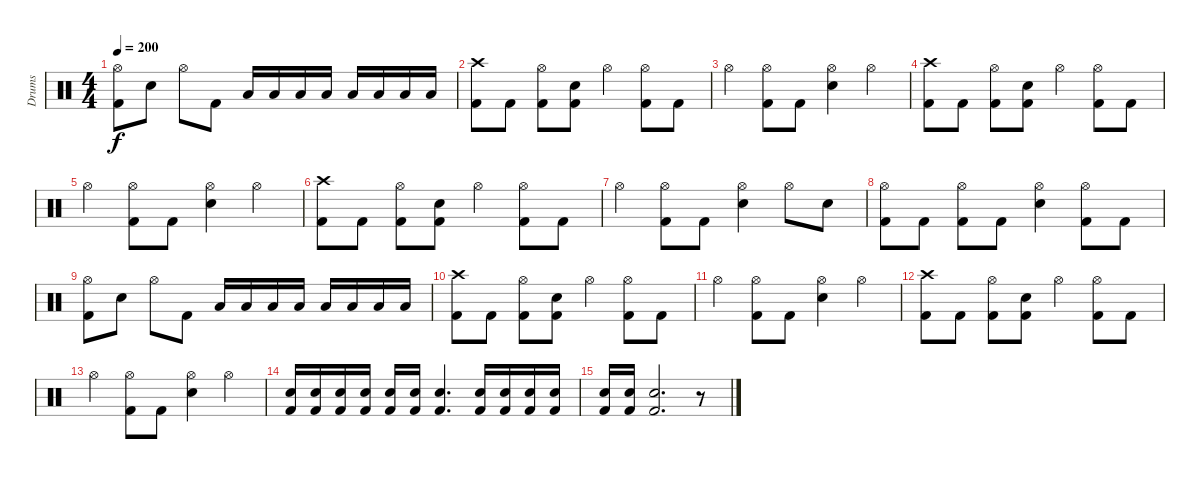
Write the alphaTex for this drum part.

\track ("Drums" "Drums") {instrument percussion}
\staff {score}
\articulation defaults
\ts (4 4)
\tempo 200
\clef neutral
\ks c
("Hi-Hat (open)" "Kick (hit) 2").8{dy f} "Snare (hit) 2".8 "Hi-Hat (open)".8 "Kick (hit) 2".8 "Low Tom (hit)".16 "Low Tom (hit)".16 "Low Tom (hit)".16 "Low Tom (hit)".16 "Low Floor Tom (hit)".16 "Low Floor Tom (hit)".16 "Low Floor Tom (hit)".16 "Low Floor Tom (hit)".16 |
("Crash high (hit)" "Kick (hit) 2").8 "Kick (hit) 2".8 ("Hi-Hat (open)" "Kick (hit) 2").8 ("Snare (hit) 2" "Kick (hit) 2").8 "Hi-Hat (open)".4 ("Hi-Hat (open)" "Kick (hit) 2").8 "Kick (hit) 2".8 |
"Hi-Hat (open)".4 ("Hi-Hat (open)" "Kick (hit) 2").8 "Kick (hit) 2".8 ("Hi-Hat (open)" "Snare (hit) 2").4 "Hi-Hat (open)".4 |
("Crash high (hit)" "Kick (hit) 2").8 "Kick (hit) 2".8 ("Hi-Hat (open)" "Kick (hit) 2").8 ("Snare (hit) 2" "Kick (hit) 2").8 "Hi-Hat (open)".4 ("Hi-Hat (open)" "Kick (hit) 2").8 "Kick (hit) 2".8 |
"Hi-Hat (open)".4 ("Hi-Hat (open)" "Kick (hit) 2").8 "Kick (hit) 2".8 ("Hi-Hat (open)" "Snare (hit) 2").4 "Hi-Hat (open)".4 |
("Crash high (hit)" "Kick (hit) 2").8 "Kick (hit) 2".8 ("Hi-Hat (open)" "Kick (hit) 2").8 ("Snare (hit) 2" "Kick (hit) 2").8 "Hi-Hat (open)".4 ("Hi-Hat (open)" "Kick (hit) 2").8 "Kick (hit) 2".8 |
"Hi-Hat (open)".4 ("Hi-Hat (open)" "Kick (hit) 2").8 "Kick (hit) 2".8 ("Hi-Hat (open)" "Snare (hit) 2").4 "Hi-Hat (open)".8 "Snare (hit) 2".8 |
("Hi-Hat (open)" "Kick (hit) 2").8 "Kick (hit) 2".8 ("Hi-Hat (open)" "Kick (hit) 2").8 "Kick (hit) 2".8 ("Hi-Hat (open)" "Snare (hit) 2").4 ("Hi-Hat (open)" "Kick (hit) 2").8 "Kick (hit) 2".8 |
("Hi-Hat (open)" "Kick (hit) 2").8 "Snare (hit) 2".8 "Hi-Hat (open)".8 "Kick (hit) 2".8 "Low Tom (hit)".16 "Low Tom (hit)".16 "Low Tom (hit)".16 "Low Tom (hit)".16 "Low Floor Tom (hit)".16 "Low Floor Tom (hit)".16 "Low Floor Tom (hit)".16 "Low Floor Tom (hit)".16 |
("Crash high (hit)" "Kick (hit) 2").8 "Kick (hit) 2".8 ("Hi-Hat (open)" "Kick (hit) 2").8 ("Snare (hit) 2" "Kick (hit) 2").8 "Hi-Hat (open)".4 ("Hi-Hat (open)" "Kick (hit) 2").8 "Kick (hit) 2".8 |
"Hi-Hat (open)".4 ("Hi-Hat (open)" "Kick (hit) 2").8 "Kick (hit) 2".8 ("Hi-Hat (open)" "Snare (hit) 2").4 "Hi-Hat (open)".4 |
("Crash high (hit)" "Kick (hit) 2").8 "Kick (hit) 2".8 ("Hi-Hat (open)" "Kick (hit) 2").8 ("Snare (hit) 2" "Kick (hit) 2").8 "Hi-Hat (open)".4 ("Hi-Hat (open)" "Kick (hit) 2").8 "Kick (hit) 2".8 |
"Hi-Hat (open)".4 ("Hi-Hat (open)" "Kick (hit) 2").8 "Kick (hit) 2".8 ("Hi-Hat (open)" "Snare (hit) 2").4 "Hi-Hat (open)".4 |
("Snare (hit) 2" "Kick (hit) 2").16 ("Snare (hit) 2" "Kick (hit) 2").16 ("Snare (hit) 2" "Kick (hit) 2").16 ("Snare (hit) 2" "Kick (hit) 2").16 ("Snare (hit) 2" "Kick (hit) 2").16 ("Snare (hit) 2" "Kick (hit) 2").16 ("Snare (hit) 2" "Kick (hit) 2").4{d} ("Snare (hit) 2" "Kick (hit) 2").16 ("Snare (hit) 2" "Kick (hit) 2").16 ("Snare (hit) 2" "Kick (hit) 2").16 ("Snare (hit) 2" "Kick (hit) 2").16 |
("Snare (hit) 2" "Kick (hit) 2").16 ("Snare (hit) 2" "Kick (hit) 2").16 ("Snare (hit) 2" "Kick (hit) 2").2{d} r.8
